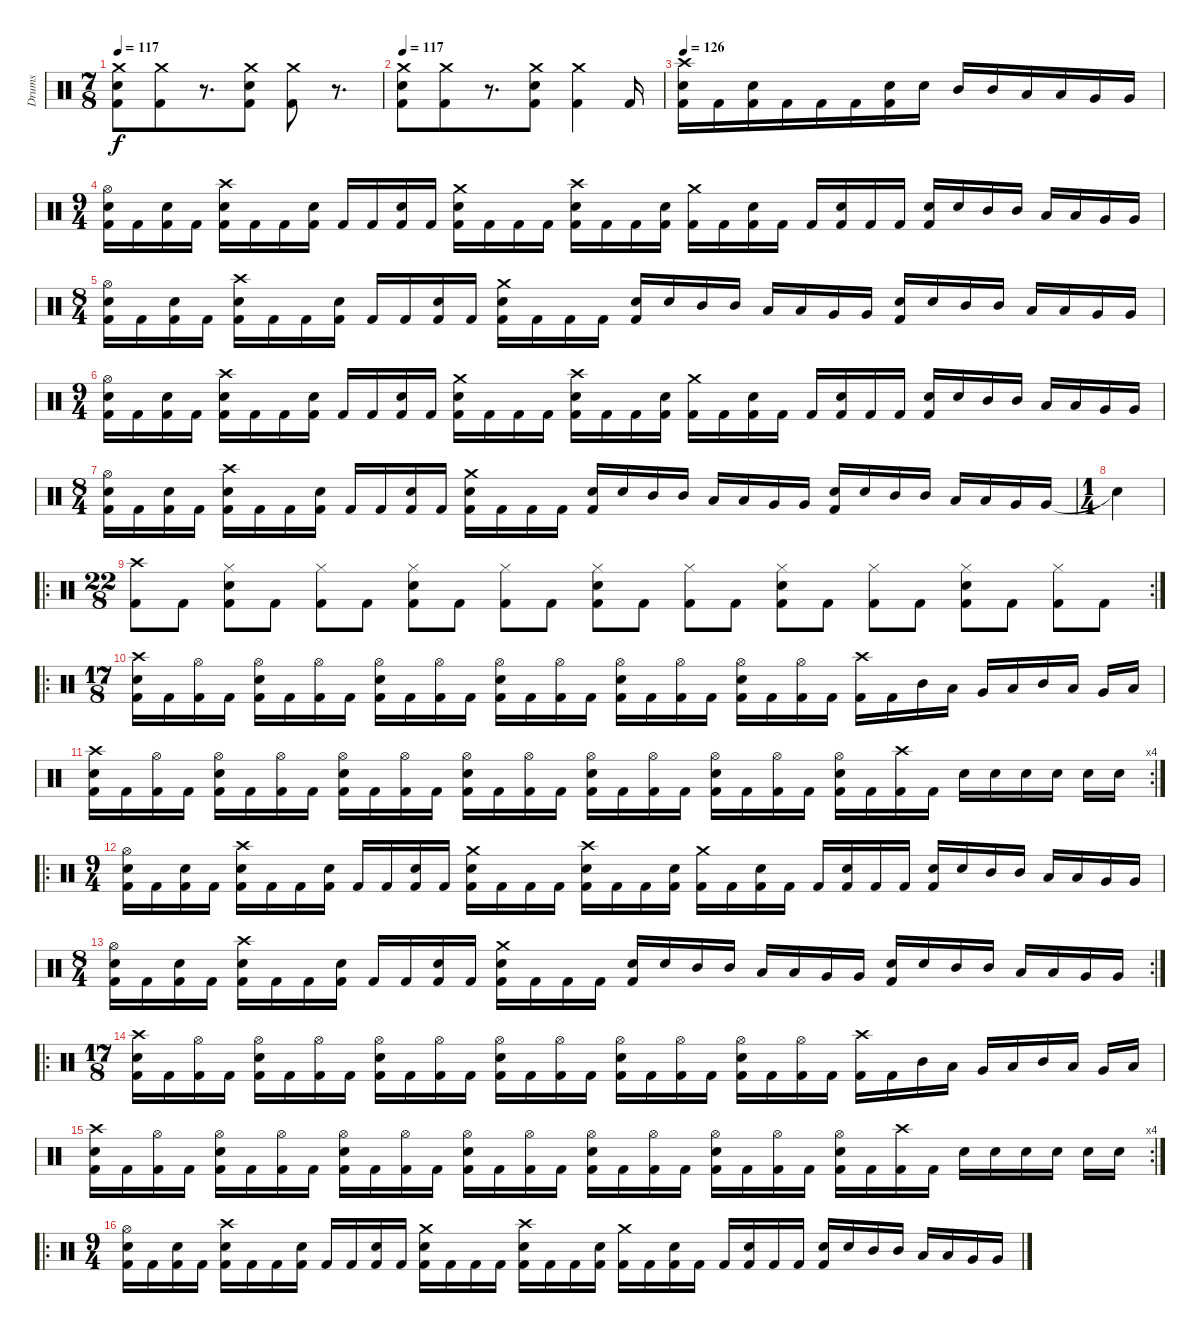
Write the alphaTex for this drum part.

\track ("Drums" "Drums") {instrument percussion}
\staff {score}
\articulation defaults
\ts (7 8)
\tempo 117
\clef neutral
\ks c
("Crash medium (hit)" "Electric Snare (hit)" "Kick (hit) 2").8{dy f} ("Crash medium (hit)" "Kick (hit) 2").8 r.8{d} ("Crash medium (hit)" "Electric Snare (hit)" "Kick (hit) 2").8 ("Crash medium (hit)" "Kick (hit) 2").8 r.8{d} |
\tempo 117
("Crash medium (hit)" "Electric Snare (hit)" "Kick (hit) 2").8 ("Crash medium (hit)" "Kick (hit) 2").8 r.8{d} ("Crash medium (hit)" "Electric Snare (hit)" "Kick (hit) 2").8 ("Crash medium (hit)" "Kick (hit) 2").4 "Kick (hit) 2".16 |
\tempo 126
("Crash high (hit)" "Electric Snare (hit)" "Kick (hit) 2").16 "Kick (hit) 2".16 ("Electric Snare (hit)" "Kick (hit) 2").16 "Kick (hit) 2".16 "Kick (hit) 2".16 "Kick (hit) 2".16 ("Electric Snare (hit)" "Kick (hit) 2").16 "Electric Snare (hit)".16 "Mid Tom (hit)".16 "Mid Tom (hit)".16 "Low Tom (hit)".16 "Low Tom (hit)".16 "Very Low Tom (hit)".16 "Very Low Tom (hit)".16 |
\ts (9 4)
("Hi-Hat (open)" "Electric Snare (hit)" "Kick (hit) 2").16 "Kick (hit) 2".16 ("Electric Snare (hit)" "Kick (hit) 2").16 "Kick (hit) 2".16 ("Crash high (hit)" "Electric Snare (hit)" "Kick (hit) 2").16 "Kick (hit) 2".16 "Kick (hit) 2".16 ("Electric Snare (hit)" "Kick (hit) 2").16 "Kick (hit) 2".16 "Kick (hit) 2".16 ("Electric Snare (hit)" "Kick (hit) 2").16 "Kick (hit) 2".16 ("Crash medium (hit)" "Electric Snare (hit)" "Kick (hit) 2").16 "Kick (hit) 2".16 "Kick (hit) 2".16 "Kick (hit) 2".16 ("Crash high (hit)" "Electric Snare (hit)" "Kick (hit) 2").16 "Kick (hit) 2".16 "Kick (hit) 2".16 ("Electric Snare (hit)" "Kick (hit) 2").16 ("Crash medium (hit)" "Kick (hit) 2").16 "Kick (hit) 2".16 ("Electric Snare (hit)" "Kick (hit) 2").16 "Kick (hit) 2".16 "Kick (hit) 2".16 ("Electric Snare (hit)" "Kick (hit) 2").16 "Kick (hit) 2".16 "Kick (hit) 2".16 ("Electric Snare (hit)" "Kick (hit) 2").16 "Electric Snare (hit)".16 "Mid Tom (hit)".16 "Mid Tom (hit)".16 "Low Tom (hit)".16 "Low Tom (hit)".16 "Very Low Tom (hit)".16 "Very Low Tom (hit)".16 |
\ts (8 4)
("Hi-Hat (open)" "Electric Snare (hit)" "Kick (hit) 2").16 "Kick (hit) 2".16 ("Electric Snare (hit)" "Kick (hit) 2").16 "Kick (hit) 2".16 ("Crash high (hit)" "Electric Snare (hit)" "Kick (hit) 2").16 "Kick (hit) 2".16 "Kick (hit) 2".16 ("Electric Snare (hit)" "Kick (hit) 2").16 "Kick (hit) 2".16 "Kick (hit) 2".16 ("Electric Snare (hit)" "Kick (hit) 2").16 "Kick (hit) 2".16 ("Crash medium (hit)" "Electric Snare (hit)" "Kick (hit) 2").16 "Kick (hit) 2".16 "Kick (hit) 2".16 "Kick (hit) 2".16 ("Electric Snare (hit)" "Kick (hit) 2").16 "Electric Snare (hit)".16 "Mid Tom (hit)".16 "Mid Tom (hit)".16 "Low Tom (hit)".16 "Low Tom (hit)".16 "Very Low Tom (hit)".16 "Very Low Tom (hit)".16 ("Electric Snare (hit)" "Kick (hit) 2").16 "Electric Snare (hit)".16 "Mid Tom (hit)".16 "Mid Tom (hit)".16 "Low Tom (hit)".16 "Low Tom (hit)".16 "Very Low Tom (hit)".16 "Very Low Tom (hit)".16 |
\ts (9 4)
("Hi-Hat (open)" "Electric Snare (hit)" "Kick (hit) 2").16 "Kick (hit) 2".16 ("Electric Snare (hit)" "Kick (hit) 2").16 "Kick (hit) 2".16 ("Crash high (hit)" "Electric Snare (hit)" "Kick (hit) 2").16 "Kick (hit) 2".16 "Kick (hit) 2".16 ("Electric Snare (hit)" "Kick (hit) 2").16 "Kick (hit) 2".16 "Kick (hit) 2".16 ("Electric Snare (hit)" "Kick (hit) 2").16 "Kick (hit) 2".16 ("Crash medium (hit)" "Electric Snare (hit)" "Kick (hit) 2").16 "Kick (hit) 2".16 "Kick (hit) 2".16 "Kick (hit) 2".16 ("Crash high (hit)" "Electric Snare (hit)" "Kick (hit) 2").16 "Kick (hit) 2".16 "Kick (hit) 2".16 ("Electric Snare (hit)" "Kick (hit) 2").16 ("Crash medium (hit)" "Kick (hit) 2").16 "Kick (hit) 2".16 ("Electric Snare (hit)" "Kick (hit) 2").16 "Kick (hit) 2".16 "Kick (hit) 2".16 ("Electric Snare (hit)" "Kick (hit) 2").16 "Kick (hit) 2".16 "Kick (hit) 2".16 ("Electric Snare (hit)" "Kick (hit) 2").16 "Electric Snare (hit)".16 "Mid Tom (hit)".16 "Mid Tom (hit)".16 "Low Tom (hit)".16 "Low Tom (hit)".16 "Very Low Tom (hit)".16 "Very Low Tom (hit)".16 |
\ts (8 4)
("Hi-Hat (open)" "Electric Snare (hit)" "Kick (hit) 2").16 "Kick (hit) 2".16 ("Electric Snare (hit)" "Kick (hit) 2").16 "Kick (hit) 2".16 ("Crash high (hit)" "Electric Snare (hit)" "Kick (hit) 2").16 "Kick (hit) 2".16 "Kick (hit) 2".16 ("Electric Snare (hit)" "Kick (hit) 2").16 "Kick (hit) 2".16 "Kick (hit) 2".16 ("Electric Snare (hit)" "Kick (hit) 2").16 "Kick (hit) 2".16 ("Crash medium (hit)" "Electric Snare (hit)" "Kick (hit) 2").16 "Kick (hit) 2".16 "Kick (hit) 2".16 "Kick (hit) 2".16 ("Electric Snare (hit)" "Kick (hit) 2").16 "Electric Snare (hit)".16 "Mid Tom (hit)".16 "Mid Tom (hit)".16 "Low Tom (hit)".16 "Low Tom (hit)".16 "Very Low Tom (hit)".16 "Very Low Tom (hit)".16 ("Electric Snare (hit)" "Kick (hit) 2").16 "Electric Snare (hit)".16 "Mid Tom (hit)".16 "Mid Tom (hit)".16 "Low Tom (hit)".16 "Low Tom (hit)".16 "Very Low Tom (hit)".16 "Very Low Tom (hit)".16 |
\ts (1 4)
"Snare (hit)"{t}.4 |
\ro
\rc 2
\ts (22 8)
("Crash high (hit)" "Kick (hit) 2").8 "Kick (hit) 2".8 ("Hi-Hat (closed)" "Electric Snare (hit)" "Kick (hit) 2").8 "Kick (hit) 2".8 ("Hi-Hat (closed)" "Kick (hit) 2").8 "Kick (hit) 2".8 ("Hi-Hat (closed)" "Electric Snare (hit)" "Kick (hit) 2").8 "Kick (hit) 2".8 ("Hi-Hat (closed)" "Kick (hit) 2").8 "Kick (hit) 2".8 ("Hi-Hat (closed)" "Electric Snare (hit)" "Kick (hit) 2").8 "Kick (hit) 2".8 ("Hi-Hat (closed)" "Kick (hit) 2").8 "Kick (hit) 2".8 ("Hi-Hat (closed)" "Electric Snare (hit)" "Kick (hit) 2").8 "Kick (hit) 2".8 ("Hi-Hat (closed)" "Kick (hit) 2").8 "Kick (hit) 2".8 ("Hi-Hat (closed)" "Electric Snare (hit)" "Kick (hit) 2").8 "Kick (hit) 2".8 ("Hi-Hat (closed)" "Kick (hit) 2").8 "Kick (hit) 2".8 |
\ro
\ts (17 8)
("Crash high (hit)" "Electric Snare (hit)" "Kick (hit) 2").16 "Kick (hit) 2".16 ("Hi-Hat (open)" "Kick (hit) 2").16 "Kick (hit) 2".16 ("Hi-Hat (open)" "Electric Snare (hit)" "Kick (hit) 2").16 "Kick (hit) 2".16 ("Hi-Hat (open)" "Kick (hit) 2").16 "Kick (hit) 2".16 ("Hi-Hat (open)" "Electric Snare (hit)" "Kick (hit) 2").16 "Kick (hit) 2".16 ("Hi-Hat (open)" "Kick (hit) 2").16 "Kick (hit) 2".16 ("Hi-Hat (open)" "Electric Snare (hit)" "Kick (hit) 2").16 "Kick (hit) 2".16 ("Hi-Hat (open)" "Kick (hit) 2").16 "Kick (hit) 2".16 ("Hi-Hat (open)" "Electric Snare (hit)" "Kick (hit) 2").16 "Kick (hit) 2".16 ("Hi-Hat (open)" "Kick (hit) 2").16 "Kick (hit) 2".16 ("Hi-Hat (open)" "Electric Snare (hit)" "Kick (hit) 2").16 "Kick (hit) 2".16 ("Hi-Hat (open)" "Kick (hit) 2").16 "Kick (hit) 2".16 ("Crash high (hit)" "Kick (hit) 2").16 "Kick (hit) 2".16 "Mid Tom (hit)".16 "Low Tom (hit)".16 "Very Low Tom (hit)".16 "Low Floor Tom (hit)".16 "Mid Tom (hit)".16 "Low Tom (hit)".16 "Very Low Tom (hit)".16 "Low Floor Tom (hit)".16 |
\rc 4
("Crash high (hit)" "Electric Snare (hit)" "Kick (hit) 2").16 "Kick (hit) 2".16 ("Hi-Hat (open)" "Kick (hit) 2").16 "Kick (hit) 2".16 ("Hi-Hat (open)" "Electric Snare (hit)" "Kick (hit) 2").16 "Kick (hit) 2".16 ("Hi-Hat (open)" "Kick (hit) 2").16 "Kick (hit) 2".16 ("Hi-Hat (open)" "Electric Snare (hit)" "Kick (hit) 2").16 "Kick (hit) 2".16 ("Hi-Hat (open)" "Kick (hit) 2").16 "Kick (hit) 2".16 ("Hi-Hat (open)" "Electric Snare (hit)" "Kick (hit) 2").16 "Kick (hit) 2".16 ("Hi-Hat (open)" "Kick (hit) 2").16 "Kick (hit) 2".16 ("Hi-Hat (open)" "Electric Snare (hit)" "Kick (hit) 2").16 "Kick (hit) 2".16 ("Hi-Hat (open)" "Kick (hit) 2").16 "Kick (hit) 2".16 ("Hi-Hat (open)" "Electric Snare (hit)" "Kick (hit) 2").16 "Kick (hit) 2".16 ("Hi-Hat (open)" "Kick (hit) 2").16 "Kick (hit) 2".16 ("Hi-Hat (open)" "Electric Snare (hit)" "Kick (hit) 2").16 "Kick (hit) 2".16 ("Crash high (hit)" "Kick (hit) 2").16 "Kick (hit) 2".16 "Electric Snare (hit)".16 "Electric Snare (hit)".16 "Electric Snare (hit)".16 "Electric Snare (hit)".16 "Electric Snare (hit)".16 "Electric Snare (hit)".16 |
\ro
\ts (9 4)
("Hi-Hat (open)" "Electric Snare (hit)" "Kick (hit) 2").16 "Kick (hit) 2".16 ("Electric Snare (hit)" "Kick (hit) 2").16 "Kick (hit) 2".16 ("Crash high (hit)" "Electric Snare (hit)" "Kick (hit) 2").16 "Kick (hit) 2".16 "Kick (hit) 2".16 ("Electric Snare (hit)" "Kick (hit) 2").16 "Kick (hit) 2".16 "Kick (hit) 2".16 ("Electric Snare (hit)" "Kick (hit) 2").16 "Kick (hit) 2".16 ("Crash medium (hit)" "Electric Snare (hit)" "Kick (hit) 2").16 "Kick (hit) 2".16 "Kick (hit) 2".16 "Kick (hit) 2".16 ("Crash high (hit)" "Electric Snare (hit)" "Kick (hit) 2").16 "Kick (hit) 2".16 "Kick (hit) 2".16 ("Electric Snare (hit)" "Kick (hit) 2").16 ("Crash medium (hit)" "Kick (hit) 2").16 "Kick (hit) 2".16 ("Electric Snare (hit)" "Kick (hit) 2").16 "Kick (hit) 2".16 "Kick (hit) 2".16 ("Electric Snare (hit)" "Kick (hit) 2").16 "Kick (hit) 2".16 "Kick (hit) 2".16 ("Electric Snare (hit)" "Kick (hit) 2").16 "Electric Snare (hit)".16 "Mid Tom (hit)".16 "Mid Tom (hit)".16 "Low Tom (hit)".16 "Low Tom (hit)".16 "Very Low Tom (hit)".16 "Very Low Tom (hit)".16 |
\rc 2
\ts (8 4)
("Hi-Hat (open)" "Electric Snare (hit)" "Kick (hit) 2").16 "Kick (hit) 2".16 ("Electric Snare (hit)" "Kick (hit) 2").16 "Kick (hit) 2".16 ("Crash high (hit)" "Electric Snare (hit)" "Kick (hit) 2").16 "Kick (hit) 2".16 "Kick (hit) 2".16 ("Electric Snare (hit)" "Kick (hit) 2").16 "Kick (hit) 2".16 "Kick (hit) 2".16 ("Electric Snare (hit)" "Kick (hit) 2").16 "Kick (hit) 2".16 ("Crash medium (hit)" "Electric Snare (hit)" "Kick (hit) 2").16 "Kick (hit) 2".16 "Kick (hit) 2".16 "Kick (hit) 2".16 ("Electric Snare (hit)" "Kick (hit) 2").16 "Electric Snare (hit)".16 "Mid Tom (hit)".16 "Mid Tom (hit)".16 "Low Tom (hit)".16 "Low Tom (hit)".16 "Very Low Tom (hit)".16 "Very Low Tom (hit)".16 ("Electric Snare (hit)" "Kick (hit) 2").16 "Electric Snare (hit)".16 "Mid Tom (hit)".16 "Mid Tom (hit)".16 "Low Tom (hit)".16 "Low Tom (hit)".16 "Very Low Tom (hit)".16 "Very Low Tom (hit)".16 |
\ro
\ts (17 8)
("Crash high (hit)" "Electric Snare (hit)" "Kick (hit) 2").16 "Kick (hit) 2".16 ("Hi-Hat (open)" "Kick (hit) 2").16 "Kick (hit) 2".16 ("Hi-Hat (open)" "Electric Snare (hit)" "Kick (hit) 2").16 "Kick (hit) 2".16 ("Hi-Hat (open)" "Kick (hit) 2").16 "Kick (hit) 2".16 ("Hi-Hat (open)" "Electric Snare (hit)" "Kick (hit) 2").16 "Kick (hit) 2".16 ("Hi-Hat (open)" "Kick (hit) 2").16 "Kick (hit) 2".16 ("Hi-Hat (open)" "Electric Snare (hit)" "Kick (hit) 2").16 "Kick (hit) 2".16 ("Hi-Hat (open)" "Kick (hit) 2").16 "Kick (hit) 2".16 ("Hi-Hat (open)" "Electric Snare (hit)" "Kick (hit) 2").16 "Kick (hit) 2".16 ("Hi-Hat (open)" "Kick (hit) 2").16 "Kick (hit) 2".16 ("Hi-Hat (open)" "Electric Snare (hit)" "Kick (hit) 2").16 "Kick (hit) 2".16 ("Hi-Hat (open)" "Kick (hit) 2").16 "Kick (hit) 2".16 ("Crash high (hit)" "Kick (hit) 2").16 "Kick (hit) 2".16 "Mid Tom (hit)".16 "Low Tom (hit)".16 "Very Low Tom (hit)".16 "Low Floor Tom (hit)".16 "Mid Tom (hit)".16 "Low Tom (hit)".16 "Very Low Tom (hit)".16 "Low Floor Tom (hit)".16 |
\rc 4
("Crash high (hit)" "Electric Snare (hit)" "Kick (hit) 2").16 "Kick (hit) 2".16 ("Hi-Hat (open)" "Kick (hit) 2").16 "Kick (hit) 2".16 ("Hi-Hat (open)" "Electric Snare (hit)" "Kick (hit) 2").16 "Kick (hit) 2".16 ("Hi-Hat (open)" "Kick (hit) 2").16 "Kick (hit) 2".16 ("Hi-Hat (open)" "Electric Snare (hit)" "Kick (hit) 2").16 "Kick (hit) 2".16 ("Hi-Hat (open)" "Kick (hit) 2").16 "Kick (hit) 2".16 ("Hi-Hat (open)" "Electric Snare (hit)" "Kick (hit) 2").16 "Kick (hit) 2".16 ("Hi-Hat (open)" "Kick (hit) 2").16 "Kick (hit) 2".16 ("Hi-Hat (open)" "Electric Snare (hit)" "Kick (hit) 2").16 "Kick (hit) 2".16 ("Hi-Hat (open)" "Kick (hit) 2").16 "Kick (hit) 2".16 ("Hi-Hat (open)" "Electric Snare (hit)" "Kick (hit) 2").16 "Kick (hit) 2".16 ("Hi-Hat (open)" "Kick (hit) 2").16 "Kick (hit) 2".16 ("Hi-Hat (open)" "Electric Snare (hit)" "Kick (hit) 2").16 "Kick (hit) 2".16 ("Crash high (hit)" "Kick (hit) 2").16 "Kick (hit) 2".16 "Electric Snare (hit)".16 "Electric Snare (hit)".16 "Electric Snare (hit)".16 "Electric Snare (hit)".16 "Electric Snare (hit)".16 "Electric Snare (hit)".16 |
\ro
\ts (9 4)
("Hi-Hat (open)" "Electric Snare (hit)" "Kick (hit) 2").16 "Kick (hit) 2".16 ("Electric Snare (hit)" "Kick (hit) 2").16 "Kick (hit) 2".16 ("Crash high (hit)" "Electric Snare (hit)" "Kick (hit) 2").16 "Kick (hit) 2".16 "Kick (hit) 2".16 ("Electric Snare (hit)" "Kick (hit) 2").16 "Kick (hit) 2".16 "Kick (hit) 2".16 ("Electric Snare (hit)" "Kick (hit) 2").16 "Kick (hit) 2".16 ("Crash medium (hit)" "Electric Snare (hit)" "Kick (hit) 2").16 "Kick (hit) 2".16 "Kick (hit) 2".16 "Kick (hit) 2".16 ("Crash high (hit)" "Electric Snare (hit)" "Kick (hit) 2").16 "Kick (hit) 2".16 "Kick (hit) 2".16 ("Electric Snare (hit)" "Kick (hit) 2").16 ("Crash medium (hit)" "Kick (hit) 2").16 "Kick (hit) 2".16 ("Electric Snare (hit)" "Kick (hit) 2").16 "Kick (hit) 2".16 "Kick (hit) 2".16 ("Electric Snare (hit)" "Kick (hit) 2").16 "Kick (hit) 2".16 "Kick (hit) 2".16 ("Electric Snare (hit)" "Kick (hit) 2").16 "Electric Snare (hit)".16 "Mid Tom (hit)".16 "Mid Tom (hit)".16 "Low Tom (hit)".16 "Low Tom (hit)".16 "Very Low Tom (hit)".16 "Very Low Tom (hit)".16
